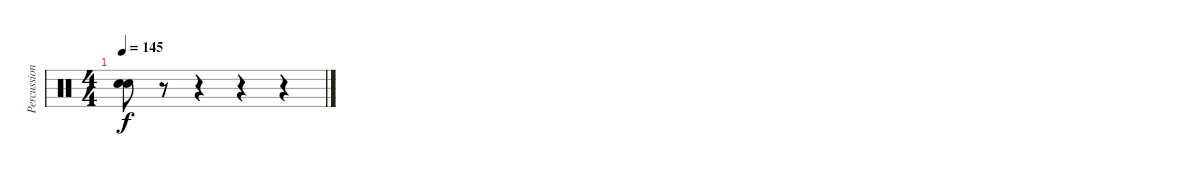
\track ("Percussion" "Percussion") {instrument percussion}
\staff {score}
\articulation defaults
\ts (4 4)
\tempo 145
\clef neutral
\ks c
("Snare (hit)"{t} "Snare (hit)"{t}).8{dy f} r.8 r.4 r.4 r.4
